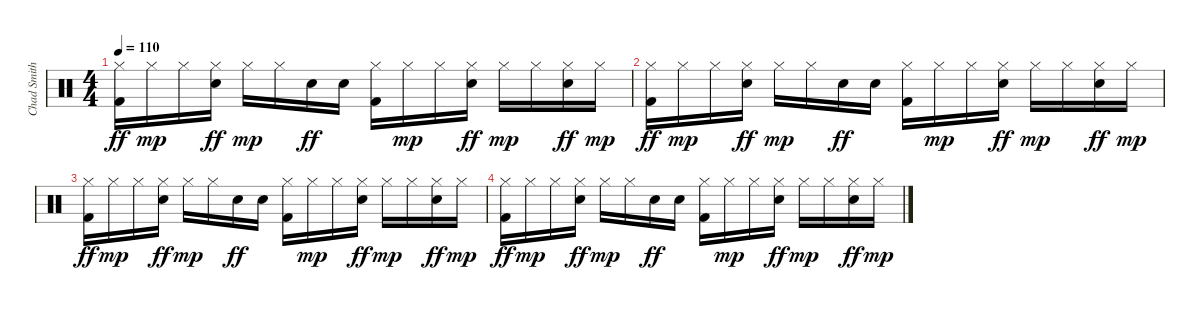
\track ("Chad Smith (drums)" "Chad Smith") {instrument percussion}
\staff {score}
\articulation defaults
\ts (4 4)
\tempo 110
\clef neutral
\ks c
("Hi-Hat (closed)" "Kick (hit) 2").16{dy ff} "Hi-Hat (closed)".16{dy mp} "Hi-Hat (closed)".16 ("Hi-Hat (closed)" "Electric Snare (hit)").16{dy ff} "Hi-Hat (closed)".16{dy mp} "Hi-Hat (closed)".16 "Electric Snare (hit)".16{dy ff} "Electric Snare (hit)".16 ("Hi-Hat (closed)" "Kick (hit) 2").16 "Hi-Hat (closed)".16{dy mp} "Hi-Hat (closed)".16 ("Hi-Hat (closed)" "Electric Snare (hit)").16{dy ff} "Hi-Hat (closed)".16{dy mp} "Hi-Hat (closed)".16 ("Hi-Hat (closed)" "Electric Snare (hit)").16{dy ff} "Hi-Hat (closed)".16{dy mp} |
("Hi-Hat (closed)" "Kick (hit) 2").16{dy ff} "Hi-Hat (closed)".16{dy mp} "Hi-Hat (closed)".16 ("Hi-Hat (closed)" "Electric Snare (hit)").16{dy ff} "Hi-Hat (closed)".16{dy mp} "Hi-Hat (closed)".16 "Electric Snare (hit)".16{dy ff} "Electric Snare (hit)".16 ("Hi-Hat (closed)" "Kick (hit) 2").16 "Hi-Hat (closed)".16{dy mp} "Hi-Hat (closed)".16 ("Hi-Hat (closed)" "Electric Snare (hit)").16{dy ff} "Hi-Hat (closed)".16{dy mp} "Hi-Hat (closed)".16 ("Hi-Hat (closed)" "Electric Snare (hit)").16{dy ff} "Hi-Hat (closed)".16{dy mp} |
("Hi-Hat (closed)" "Kick (hit) 2").16{dy ff} "Hi-Hat (closed)".16{dy mp} "Hi-Hat (closed)".16 ("Hi-Hat (closed)" "Electric Snare (hit)").16{dy ff} "Hi-Hat (closed)".16{dy mp} "Hi-Hat (closed)".16 "Electric Snare (hit)".16{dy ff} "Electric Snare (hit)".16 ("Hi-Hat (closed)" "Kick (hit) 2").16 "Hi-Hat (closed)".16{dy mp} "Hi-Hat (closed)".16 ("Hi-Hat (closed)" "Electric Snare (hit)").16{dy ff} "Hi-Hat (closed)".16{dy mp} "Hi-Hat (closed)".16 ("Hi-Hat (closed)" "Electric Snare (hit)").16{dy ff} "Hi-Hat (closed)".16{dy mp} |
("Hi-Hat (closed)" "Kick (hit) 2").16{dy ff} "Hi-Hat (closed)".16{dy mp} "Hi-Hat (closed)".16 ("Hi-Hat (closed)" "Electric Snare (hit)").16{dy ff} "Hi-Hat (closed)".16{dy mp} "Hi-Hat (closed)".16 "Electric Snare (hit)".16{dy ff} "Electric Snare (hit)".16 ("Hi-Hat (closed)" "Kick (hit) 2").16 "Hi-Hat (closed)".16{dy mp} "Hi-Hat (closed)".16 ("Hi-Hat (closed)" "Electric Snare (hit)").16{dy ff} "Hi-Hat (closed)".16{dy mp} "Hi-Hat (closed)".16 ("Hi-Hat (closed)" "Electric Snare (hit)").16{dy ff} "Hi-Hat (closed)".16{dy mp}
